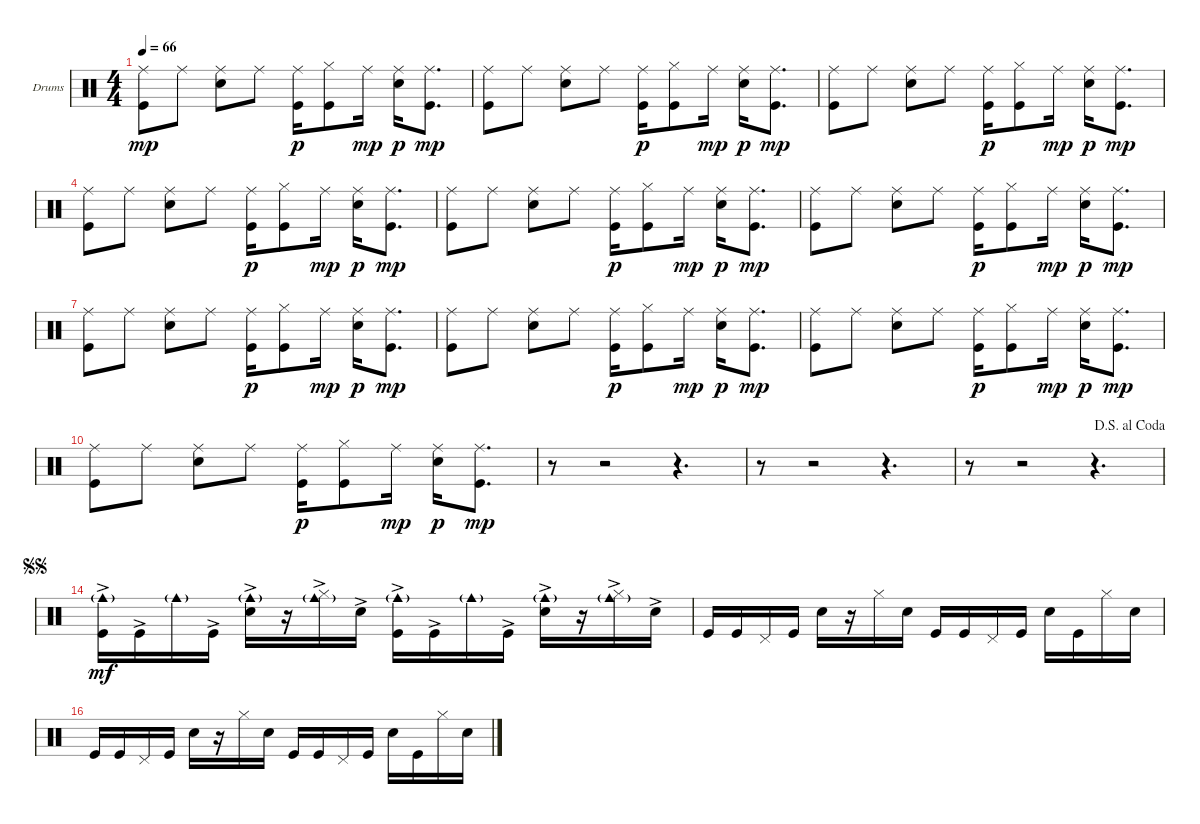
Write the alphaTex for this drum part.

\bracketExtendMode nobrackets
\firstSystemTrackNameOrientation horizontal
\otherSystemsTrackNameOrientation horizontal
\defaultBarNumberDisplay FirstOfSystem
\track ("Drumkit" "Drums") {instrument percussion}
\staff {score}
\articulation defaults
\ts (4 4)
\tempo 66
\clef neutral
\ks c
("Ride (middle)" "Kick (hit)").8{dy mp} "Ride (middle)".8 ("Snare (hit) 2" "Ride (middle)").8 "Ride (middle)".8 ("Ride (middle)" "Kick (hit)").16{dy p} ("Hi-Hat (closed)" "Kick (hit)").8 "Ride (middle)".16{dy mp} ("Ride (middle)" "Snare (hit) 2").16{dy p} ("Ride (middle)" "Kick (hit)").8{d dy mp} |
("Ride (middle)" "Kick (hit)").8 "Ride (middle)".8 ("Snare (hit) 2" "Ride (middle)").8 "Ride (middle)".8 ("Ride (middle)" "Kick (hit)").16{dy p} ("Hi-Hat (closed)" "Kick (hit)").8 "Ride (middle)".16{dy mp} ("Ride (middle)" "Snare (hit) 2").16{dy p} ("Ride (middle)" "Kick (hit)").8{d dy mp} |
("Ride (middle)" "Kick (hit)").8 "Ride (middle)".8 ("Snare (hit) 2" "Ride (middle)").8 "Ride (middle)".8 ("Ride (middle)" "Kick (hit)").16{dy p} ("Hi-Hat (closed)" "Kick (hit)").8 "Ride (middle)".16{dy mp} ("Ride (middle)" "Snare (hit) 2").16{dy p} ("Ride (middle)" "Kick (hit)").8{d dy mp} |
("Ride (middle)" "Kick (hit)").8 "Ride (middle)".8 ("Snare (hit) 2" "Ride (middle)").8 "Ride (middle)".8 ("Ride (middle)" "Kick (hit)").16{dy p} ("Hi-Hat (closed)" "Kick (hit)").8 "Ride (middle)".16{dy mp} ("Ride (middle)" "Snare (hit) 2").16{dy p} ("Ride (middle)" "Kick (hit)").8{d dy mp} |
("Ride (middle)" "Kick (hit)").8 "Ride (middle)".8 ("Snare (hit) 2" "Ride (middle)").8 "Ride (middle)".8 ("Ride (middle)" "Kick (hit)").16{dy p} ("Hi-Hat (closed)" "Kick (hit)").8 "Ride (middle)".16{dy mp} ("Ride (middle)" "Snare (hit) 2").16{dy p} ("Ride (middle)" "Kick (hit)").8{d dy mp} |
("Ride (middle)" "Kick (hit)").8 "Ride (middle)".8 ("Snare (hit) 2" "Ride (middle)").8 "Ride (middle)".8 ("Ride (middle)" "Kick (hit)").16{dy p} ("Hi-Hat (closed)" "Kick (hit)").8 "Ride (middle)".16{dy mp} ("Ride (middle)" "Snare (hit) 2").16{dy p} ("Ride (middle)" "Kick (hit)").8{d dy mp} |
("Ride (middle)" "Kick (hit)").8 "Ride (middle)".8 ("Snare (hit) 2" "Ride (middle)").8 "Ride (middle)".8 ("Ride (middle)" "Kick (hit)").16{dy p} ("Hi-Hat (closed)" "Kick (hit)").8 "Ride (middle)".16{dy mp} ("Ride (middle)" "Snare (hit) 2").16{dy p} ("Ride (middle)" "Kick (hit)").8{d dy mp} |
("Ride (middle)" "Kick (hit)").8 "Ride (middle)".8 ("Snare (hit) 2" "Ride (middle)").8 "Ride (middle)".8 ("Ride (middle)" "Kick (hit)").16{dy p} ("Hi-Hat (closed)" "Kick (hit)").8 "Ride (middle)".16{dy mp} ("Ride (middle)" "Snare (hit) 2").16{dy p} ("Ride (middle)" "Kick (hit)").8{d dy mp} |
("Ride (middle)" "Kick (hit)").8 "Ride (middle)".8 ("Snare (hit) 2" "Ride (middle)").8 "Ride (middle)".8 ("Ride (middle)" "Kick (hit)").16{dy p} ("Hi-Hat (closed)" "Kick (hit)").8 "Ride (middle)".16{dy mp} ("Ride (middle)" "Snare (hit) 2").16{dy p} ("Ride (middle)" "Kick (hit)").8{d dy mp} |
("Ride (middle)" "Kick (hit)").8 "Ride (middle)".8 ("Snare (hit) 2" "Ride (middle)").8 "Ride (middle)".8 ("Ride (middle)" "Kick (hit)").16{dy p} ("Hi-Hat (closed)" "Kick (hit)").8 "Ride (middle)".16{dy mp} ("Ride (middle)" "Snare (hit) 2").16{dy p} ("Ride (middle)" "Kick (hit)").8{d dy mp} |
r.8 r.2 r.4{d} |
r.8 r.2 r.4{d} |
\jump dalsegnoalcoda
r.8 r.2 r.4{d} |
\jump segnosegno
("Kick (hit)"{ac} "Cowbell medium (hit)"{g}).16{dy mf} "Kick (hit)"{ac}.16 "Cowbell medium (hit)"{g}.16 "Kick (hit)"{ac}.16 ("Snare (hit) 2"{ac} "Cowbell medium (hit)"{g}).16 r.16 ("Hi-Hat (closed)"{ac} "Cowbell medium (hit)"{g}).16 "Snare (hit) 2"{ac}.16 ("Kick (hit)"{ac} "Cowbell medium (hit)"{g}).16 "Kick (hit)"{ac}.16 "Cowbell medium (hit)"{g}.16 "Kick (hit)"{ac}.16 ("Snare (hit) 2"{ac} "Cowbell medium (hit)"{g}).16 r.16 ("Hi-Hat (closed)"{ac} "Cowbell medium (hit)"{g}).16 "Snare (hit) 2"{ac}.16 |
"Kick (hit)".16 "Kick (hit)".16 "Pedal Hi-Hat (hit)".16 "Kick (hit)".16 "Snare (hit) 2".16 r.16 "Hi-Hat (closed)".16 "Snare (hit) 2".16 "Kick (hit)".16 "Kick (hit)".16 "Pedal Hi-Hat (hit)".16 "Kick (hit)".16 "Snare (hit) 2".16 "Kick (hit)".16 "Hi-Hat (closed)".16 "Snare (hit) 2".16 |
"Kick (hit)".16 "Kick (hit)".16 "Pedal Hi-Hat (hit)".16 "Kick (hit)".16 "Snare (hit) 2".16 r.16 "Hi-Hat (closed)".16 "Snare (hit) 2".16 "Kick (hit)".16 "Kick (hit)".16 "Pedal Hi-Hat (hit)".16 "Kick (hit)".16 "Snare (hit) 2".16 "Kick (hit)".16 "Hi-Hat (closed)".16 "Snare (hit) 2".16
